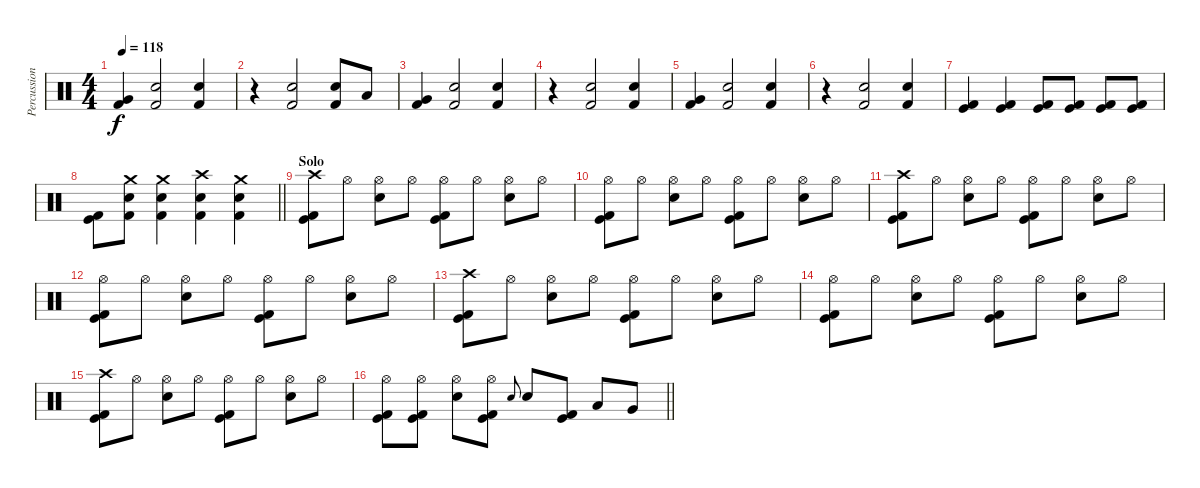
\track ("Percussion" "Percussion") {instrument percussion}
\staff {score}
\articulation defaults
\ts (4 4)
\tempo 118
\clef neutral
\ks c
("Kick (hit) 2" "Very Low Tom (hit)").4{dy f} ("Electric Snare (hit)" "Kick (hit) 2").2 ("Electric Snare (hit)" "Kick (hit) 2").4 |
r.4 ("Electric Snare (hit)" "Kick (hit) 2").2 ("Electric Snare (hit)" "Kick (hit) 2").8 "Low Tom (hit)".8 |
("Kick (hit) 2" "Very Low Tom (hit)").4 ("Electric Snare (hit)" "Kick (hit) 2").2 ("Electric Snare (hit)" "Kick (hit) 2").4 |
r.4 ("Electric Snare (hit)" "Kick (hit) 2").2 ("Electric Snare (hit)" "Kick (hit) 2").4 |
("Kick (hit) 2" "Very Low Tom (hit)").4 ("Electric Snare (hit)" "Kick (hit) 2").2 ("Electric Snare (hit)" "Kick (hit) 2").4 |
r.4 ("Electric Snare (hit)" "Kick (hit) 2").2 ("Electric Snare (hit)" "Kick (hit) 2").4 |
("Kick (hit)" "Kick (hit) 2").4 ("Kick (hit)" "Kick (hit) 2").4 ("Kick (hit)" "Kick (hit) 2").8 ("Kick (hit)" "Kick (hit) 2").8 ("Kick (hit)" "Kick (hit) 2").8 ("Kick (hit)" "Kick (hit) 2").8 |
\barLineRight lightlight
("Kick (hit)" "Kick (hit) 2").8 ("Crash medium (hit)" "Electric Snare (hit)" "Kick (hit) 2").8 ("Crash medium (hit)" "Electric Snare (hit)" "Kick (hit) 2").4 ("Crash high (hit)" "Electric Snare (hit)" "Kick (hit) 2").4 ("Crash medium (hit)" "Electric Snare (hit)" "Kick (hit) 2").4 |
\section ("" "Solo")
("Crash high (hit)" "Kick (hit)" "Kick (hit) 2").8 "Hi-Hat (open)".8 ("Hi-Hat (open)" "Electric Snare (hit)").8 "Hi-Hat (open)".8 ("Hi-Hat (open)" "Kick (hit)" "Kick (hit) 2").8 "Hi-Hat (open)".8 ("Hi-Hat (open)" "Electric Snare (hit)").8 "Hi-Hat (open)".8 |
("Hi-Hat (open)" "Kick (hit)" "Kick (hit) 2").8 "Hi-Hat (open)".8 ("Hi-Hat (open)" "Electric Snare (hit)").8 "Hi-Hat (open)".8 ("Hi-Hat (open)" "Kick (hit)" "Kick (hit) 2").8 "Hi-Hat (open)".8 ("Hi-Hat (open)" "Electric Snare (hit)").8 "Hi-Hat (open)".8 |
("Crash high (hit)" "Kick (hit)" "Kick (hit) 2").8 "Hi-Hat (open)".8 ("Hi-Hat (open)" "Electric Snare (hit)").8 "Hi-Hat (open)".8 ("Hi-Hat (open)" "Kick (hit)" "Kick (hit) 2").8 "Hi-Hat (open)".8 ("Hi-Hat (open)" "Electric Snare (hit)").8 "Hi-Hat (open)".8 |
("Hi-Hat (open)" "Kick (hit)" "Kick (hit) 2").8 "Hi-Hat (open)".8 ("Hi-Hat (open)" "Electric Snare (hit)").8 "Hi-Hat (open)".8 ("Hi-Hat (open)" "Kick (hit)" "Kick (hit) 2").8 "Hi-Hat (open)".8 ("Hi-Hat (open)" "Electric Snare (hit)").8 "Hi-Hat (open)".8 |
("Crash high (hit)" "Kick (hit)" "Kick (hit) 2").8 "Hi-Hat (open)".8 ("Hi-Hat (open)" "Electric Snare (hit)").8 "Hi-Hat (open)".8 ("Hi-Hat (open)" "Kick (hit)" "Kick (hit) 2").8 "Hi-Hat (open)".8 ("Hi-Hat (open)" "Electric Snare (hit)").8 "Hi-Hat (open)".8 |
("Hi-Hat (open)" "Kick (hit)" "Kick (hit) 2").8 "Hi-Hat (open)".8 ("Hi-Hat (open)" "Electric Snare (hit)").8 "Hi-Hat (open)".8 ("Hi-Hat (open)" "Kick (hit)" "Kick (hit) 2").8 "Hi-Hat (open)".8 ("Hi-Hat (open)" "Electric Snare (hit)").8 "Hi-Hat (open)".8 |
("Crash high (hit)" "Kick (hit)" "Kick (hit) 2").8 "Hi-Hat (open)".8 ("Hi-Hat (open)" "Electric Snare (hit)").8 "Hi-Hat (open)".8 ("Hi-Hat (open)" "Kick (hit)" "Kick (hit) 2").8 "Hi-Hat (open)".8 ("Hi-Hat (open)" "Electric Snare (hit)").8 "Hi-Hat (open)".8 |
\barLineRight lightlight
("Hi-Hat (open)" "Kick (hit)" "Kick (hit) 2").8 ("Hi-Hat (open)" "Kick (hit)" "Kick (hit) 2").8 ("Hi-Hat (open)" "Electric Snare (hit)").8 ("Hi-Hat (open)" "Kick (hit)" "Kick (hit) 2").8 "Electric Snare (hit)".8{gr onbeat} "Electric Snare (hit)".8 ("Kick (hit)" "Kick (hit) 2").8 "Low Tom (hit)".8 "Very Low Tom (hit)".8
